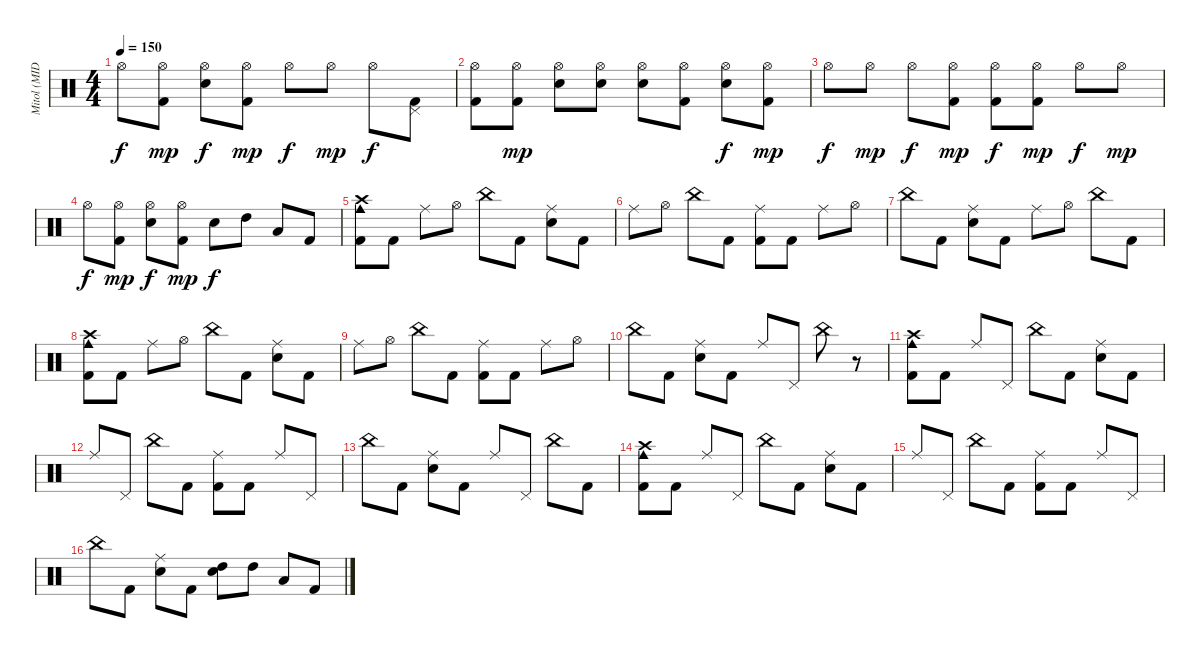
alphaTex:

\track ("Mitol (MIDI)" "Mitol (MID") {instrument percussion}
\staff {score}
\articulation defaults
\ts (4 4)
\tempo 150
\clef neutral
\ks c "Hi-Hat (open)".8{dy f}
("Hi-Hat (open)" "Kick (hit) 2").8{dy mp} ("Electric Snare (hit)" "Hi-Hat (open)").8{dy f} ("Kick (hit) 2" "Hi-Hat (open)").8{dy mp} "Hi-Hat (open)".8{dy f} "Hi-Hat (open)".8{dy mp} "Hi-Hat (open)".8{dy f} ("Pedal Hi-Hat (hit)" "Kick (hit) 2").8 |
("Hi-Hat (open)" "Kick (hit) 2").8 ("Kick (hit) 2" "Hi-Hat (open)").8{dy mp} ("Electric Snare (hit)" "Hi-Hat (open)").8 ("Hi-Hat (open)" "Electric Snare (hit)").8 ("Electric Snare (hit)" "Hi-Hat (open)").8 ("Kick (hit) 2" "Hi-Hat (open)").8 ("Electric Snare (hit)" "Hi-Hat (open)").8{dy f} ("Hi-Hat (open)" "Kick (hit) 2").8{dy mp} |
"Hi-Hat (open)".8{dy f} "Hi-Hat (open)".8{dy mp} "Hi-Hat (open)".8{dy f} ("Hi-Hat (open)" "Kick (hit) 2").8{dy mp} ("Kick (hit) 2" "Hi-Hat (open)").8{dy f} ("Hi-Hat (open)" "Kick (hit) 2").8{dy mp} "Hi-Hat (open)".8{dy f} "Hi-Hat (open)".8{dy mp} |
"Hi-Hat (open)".8{dy f} ("Hi-Hat (open)" "Kick (hit) 2").8{dy mp} ("Electric Snare (hit)" "Hi-Hat (open)").8{dy f} ("Hi-Hat (open)" "Kick (hit) 2").8{dy mp} "Electric Snare (hit)".8{dy f} "High Tom (hit)".8 "Low Tom (hit)".8 "Kick (hit) 2".8 |
("Crash high (hit)" "Kick (hit) 2" "Cowbell medium (hit)").8 "Kick (hit) 2".8 "Ride (middle)".8 "Hi-Hat (open)".8 "China (hit)".8 "Kick (hit) 2".8 ("Ride (middle)" "Electric Snare (hit)").8 "Kick (hit) 2".8 |
"Ride (middle)".8 "Hi-Hat (open)".8 "China (hit)".8 "Kick (hit) 2".8 ("Kick (hit) 2" "Ride (middle)").8 "Kick (hit) 2".8 "Ride (middle)".8 "Hi-Hat (open)".8 |
"China (hit)".8 "Kick (hit) 2".8 ("Ride (middle)" "Electric Snare (hit)").8 "Kick (hit) 2".8 "Ride (middle)".8 "Hi-Hat (open)".8 "China (hit)".8 "Kick (hit) 2".8 |
("Cowbell medium (hit)" "Kick (hit) 2" "Crash high (hit)").8 "Kick (hit) 2".8 "Ride (middle)".8 "Hi-Hat (open)".8 "China (hit)".8 "Kick (hit) 2".8 ("Electric Snare (hit)" "Ride (middle)").8 "Kick (hit) 2".8 |
"Ride (middle)".8 "Hi-Hat (open)".8 "China (hit)".8 "Kick (hit) 2".8 ("Kick (hit) 2" "Ride (middle)").8 "Kick (hit) 2".8 "Ride (middle)".8 "Hi-Hat (open)".8 |
"China (hit)".8 "Kick (hit) 2".8 ("Electric Snare (hit)" "Ride (middle)").8 "Kick (hit) 2".8 "Ride (middle)".8 "Pedal Hi-Hat (hit)".8 "China (hit)".8 r.8 |
("Crash high (hit)" "Kick (hit) 2" "Cowbell medium (hit)").8 "Kick (hit) 2".8 "Ride (middle)".8 "Pedal Hi-Hat (hit)".8 "China (hit)".8 "Kick (hit) 2".8 ("Electric Snare (hit)" "Ride (middle)").8 "Kick (hit) 2".8 |
"Ride (middle)".8 "Pedal Hi-Hat (hit)".8 "China (hit)".8 "Kick (hit) 2".8 ("Kick (hit) 2" "Ride (middle)").8 "Kick (hit) 2".8 "Ride (middle)".8 "Pedal Hi-Hat (hit)".8 |
"China (hit)".8 "Kick (hit) 2".8 ("Electric Snare (hit)" "Ride (middle)").8 "Kick (hit) 2".8 "Ride (middle)".8 "Pedal Hi-Hat (hit)".8 "China (hit)".8 "Kick (hit) 2".8 |
("Cowbell medium (hit)" "Crash high (hit)" "Kick (hit) 2").8 "Kick (hit) 2".8 "Ride (middle)".8 "Pedal Hi-Hat (hit)".8 "China (hit)".8 "Kick (hit) 2".8 ("Ride (middle)" "Electric Snare (hit)").8 "Kick (hit) 2".8 |
"Ride (middle)".8 "Pedal Hi-Hat (hit)".8 "China (hit)".8 "Kick (hit) 2".8 ("Kick (hit) 2" "Ride (middle)").8 "Kick (hit) 2".8 "Ride (middle)".8 "Pedal Hi-Hat (hit)".8 |
"China (hit)".8 "Kick (hit) 2".8 ("Ride (middle)" "Electric Snare (hit)").8 "Kick (hit) 2".8 ("High Tom (hit)" "Electric Snare (hit)").8 "High Tom (hit)".8 "Low Tom (hit)".8 "Kick (hit) 2".8
